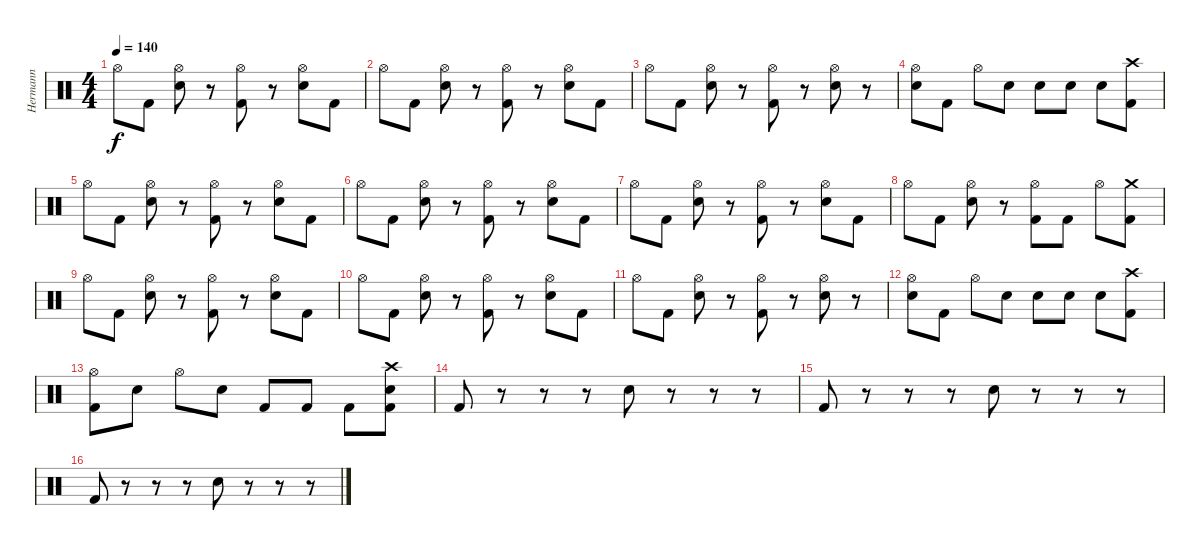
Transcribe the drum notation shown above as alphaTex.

\track ("Hermann" "Hermann") {instrument percussion}
\staff {score}
\articulation defaults
\ts (4 4)
\tempo 140
\clef neutral
\ks c "Hi-Hat (open)".8{dy f} "Kick (hit) 2".8
("Hi-Hat (open)" "Electric Snare (hit)").8 r.8 ("Hi-Hat (open)" "Kick (hit) 2").8 r.8 ("Hi-Hat (open)" "Electric Snare (hit)").8 "Kick (hit) 2".8 |
"Hi-Hat (open)".8 "Kick (hit) 2".8 ("Hi-Hat (open)" "Electric Snare (hit)").8 r.8 ("Hi-Hat (open)" "Kick (hit) 2").8 r.8 ("Hi-Hat (open)" "Electric Snare (hit)").8 "Kick (hit) 2".8 |
"Hi-Hat (open)".8 "Kick (hit) 2".8 ("Hi-Hat (open)" "Electric Snare (hit)").8 r.8 ("Hi-Hat (open)" "Kick (hit) 2").8 r.8 ("Hi-Hat (open)" "Electric Snare (hit)").8 r.8 |
("Hi-Hat (open)" "Electric Snare (hit)").8 "Kick (hit) 2".8 "Hi-Hat (open)".8 "Electric Snare (hit)".8 "Electric Snare (hit)".8 "Electric Snare (hit)".8 "Electric Snare (hit)".8 ("Crash high (hit)" "Kick (hit) 2").8 |
"Hi-Hat (open)".8 "Kick (hit) 2".8 ("Hi-Hat (open)" "Electric Snare (hit)").8 r.8 ("Hi-Hat (open)" "Kick (hit) 2").8 r.8 ("Hi-Hat (open)" "Electric Snare (hit)").8 "Kick (hit) 2".8 |
"Hi-Hat (open)".8 "Kick (hit) 2".8 ("Hi-Hat (open)" "Electric Snare (hit)").8 r.8 ("Hi-Hat (open)" "Kick (hit) 2").8 r.8 ("Hi-Hat (open)" "Electric Snare (hit)").8 "Kick (hit) 2".8 |
"Hi-Hat (open)".8 "Kick (hit) 2".8 ("Hi-Hat (open)" "Electric Snare (hit)").8 r.8 ("Hi-Hat (open)" "Kick (hit) 2").8 r.8 ("Hi-Hat (open)" "Electric Snare (hit)").8 "Kick (hit) 2".8 |
"Hi-Hat (open)".8 "Kick (hit) 2".8 ("Hi-Hat (open)" "Electric Snare (hit)").8 r.8 ("Hi-Hat (open)" "Kick (hit) 2").8 "Kick (hit) 2".8 "Hi-Hat (open)".8 ("Crash medium (hit)" "Kick (hit) 2").8 |
"Hi-Hat (open)".8 "Kick (hit) 2".8 ("Hi-Hat (open)" "Electric Snare (hit)").8 r.8 ("Hi-Hat (open)" "Kick (hit) 2").8 r.8 ("Hi-Hat (open)" "Electric Snare (hit)").8 "Kick (hit) 2".8 |
"Hi-Hat (open)".8 "Kick (hit) 2".8 ("Hi-Hat (open)" "Electric Snare (hit)").8 r.8 ("Hi-Hat (open)" "Kick (hit) 2").8 r.8 ("Hi-Hat (open)" "Electric Snare (hit)").8 "Kick (hit) 2".8 |
"Hi-Hat (open)".8 "Kick (hit) 2".8 ("Hi-Hat (open)" "Electric Snare (hit)").8 r.8 ("Hi-Hat (open)" "Kick (hit) 2").8 r.8 ("Hi-Hat (open)" "Electric Snare (hit)").8 r.8 |
("Hi-Hat (open)" "Electric Snare (hit)").8 "Kick (hit) 2".8 "Hi-Hat (open)".8 "Electric Snare (hit)".8 "Electric Snare (hit)".8 "Electric Snare (hit)".8 "Electric Snare (hit)".8 ("Crash high (hit)" "Kick (hit) 2").8 |
("Hi-Hat (open)" "Kick (hit) 2").8 "Electric Snare (hit)".8 "Hi-Hat (open)".8 "Electric Snare (hit)".8 "Kick (hit) 2".8 "Kick (hit) 2".8 "Kick (hit) 2".8 ("Crash high (hit)" "Electric Snare (hit)" "Kick (hit) 2").8 |
"Kick (hit) 2".8 r.8 r.8 r.8 "Electric Snare (hit)".8 r.8 r.8 r.8 |
"Kick (hit) 2".8 r.8 r.8 r.8 "Electric Snare (hit)".8 r.8 r.8 r.8 |
"Kick (hit) 2".8 r.8 r.8 r.8 "Electric Snare (hit)".8 r.8 r.8 r.8
